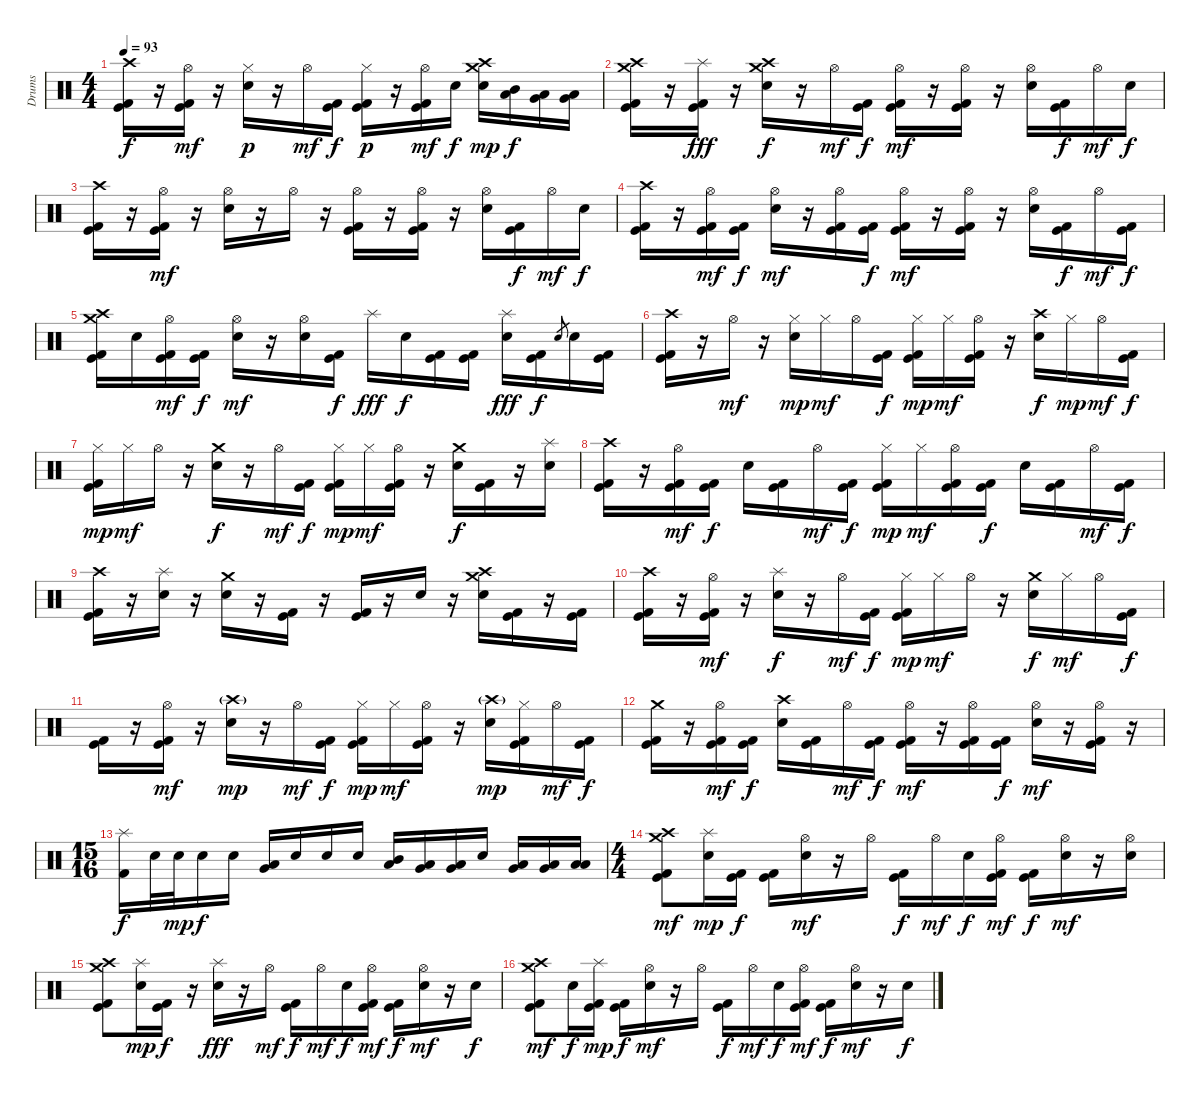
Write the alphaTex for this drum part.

\track ("Drums" "Drums") {instrument percussion}
\staff {score}
\articulation defaults
\ts (4 4)
\tempo 93
\clef neutral
\ks c
("Crash high (hit)" "Kick (hit)" "Kick (hit) 2").16{dy f} r.16 ("Hi-Hat (open)" "Kick (hit)" "Kick (hit) 2").16{dy mf} r.16 ("Hi-Hat (closed)" "Electric Snare (hit)").16{dy p} r.16 "Hi-Hat (open)".16{dy mf} ("Kick (hit)" "Kick (hit) 2").16{dy f} ("Hi-Hat (closed)" "Kick (hit)" "Kick (hit) 2").16{dy p} r.16 ("Hi-Hat (open)" "Kick (hit)" "Kick (hit) 2").16{dy mf} "Electric Snare (hit)".16{dy f} ("Crash high (hit)" "Crash medium (hit)" "Electric Snare (hit)").16{dy mp} ("Mid Tom (hit)" "Low Tom (hit)").16{dy f} ("Low Tom (hit)" "Very Low Tom (hit)").16 ("Very Low Tom (hit)" "Low Floor Tom (hit)").16 |
("Crash high (hit)" "Crash medium (hit)" "Kick (hit)" "Kick (hit) 2").16 r.16 ("Splash (hit)" "Kick (hit)" "Kick (hit) 2").16{dy fff} r.16 ("Crash high (hit)" "Crash medium (hit)" "Electric Snare (hit)").16{dy f} r.16 "Hi-Hat (open)".16{dy mf} ("Kick (hit)" "Kick (hit) 2").16{dy f} ("Hi-Hat (open)" "Kick (hit)" "Kick (hit) 2").16{dy mf} r.16 ("Hi-Hat (open)" "Kick (hit)" "Kick (hit) 2").16 r.16 ("Hi-Hat (open)" "Electric Snare (hit)").16 ("Kick (hit)" "Kick (hit) 2").16{dy f} "Hi-Hat (open)".16{dy mf} "Electric Snare (hit)".16{dy f} |
("Crash high (hit)" "Kick (hit)" "Kick (hit) 2").16 r.16 ("Hi-Hat (open)" "Kick (hit)" "Kick (hit) 2").16{dy mf} r.16 ("Hi-Hat (open)" "Electric Snare (hit)").16 r.16 "Hi-Hat (open)".16 r.16 ("Hi-Hat (open)" "Kick (hit)" "Kick (hit) 2").16 r.16 ("Hi-Hat (open)" "Kick (hit)" "Kick (hit) 2").16 r.16 ("Hi-Hat (open)" "Electric Snare (hit)").16 ("Kick (hit)" "Kick (hit) 2").16{dy f} "Hi-Hat (open)".16{dy mf} "Electric Snare (hit)".16{dy f} |
("Crash high (hit)" "Kick (hit)" "Kick (hit) 2").16 r.16 ("Hi-Hat (open)" "Kick (hit)" "Kick (hit) 2").16{dy mf} ("Kick (hit)" "Kick (hit) 2").16{dy f} ("Hi-Hat (open)" "Electric Snare (hit)").16{dy mf} r.16 ("Hi-Hat (open)" "Kick (hit)" "Kick (hit) 2").16 ("Kick (hit)" "Kick (hit) 2").16{dy f} ("Hi-Hat (open)" "Kick (hit)" "Kick (hit) 2").16{dy mf} r.16 ("Hi-Hat (open)" "Kick (hit)" "Kick (hit) 2").16 r.16 ("Hi-Hat (open)" "Electric Snare (hit)").16 ("Kick (hit)" "Kick (hit) 2").16{dy f} "Hi-Hat (open)".16{dy mf} ("Kick (hit)" "Kick (hit) 2").16{dy f} |
("Crash high (hit)" "Crash medium (hit)" "Kick (hit)" "Kick (hit) 2").16 "Electric Snare (hit)".16 ("Hi-Hat (open)" "Kick (hit)" "Kick (hit) 2").16{dy mf} ("Kick (hit)" "Kick (hit) 2").16{dy f} ("Hi-Hat (open)" "Electric Snare (hit)").16{dy mf} r.16 ("Hi-Hat (open)" "Electric Snare (hit)").16 ("Kick (hit)" "Kick (hit) 2").16{dy f} "Splash (hit)".16{dy fff} "Electric Snare (hit)".16{dy f} ("Kick (hit)" "Kick (hit) 2").16 ("Kick (hit)" "Kick (hit) 2").16 ("Splash (hit)" "Electric Snare (hit)").16{dy fff} ("Kick (hit)" "Kick (hit) 2").16{dy f} "Electric Snare (hit)".8{gr} "Electric Snare (hit)".16 ("Kick (hit)" "Kick (hit) 2").16 |
("Crash high (hit)" "Kick (hit)" "Kick (hit) 2").16 r.16 "Hi-Hat (open)".16{dy mf} r.16 ("Hi-Hat (closed)" "Electric Snare (hit)").16{dy mp} "Hi-Hat (closed)".16{dy mf} "Hi-Hat (open)".16 ("Kick (hit)" "Kick (hit) 2").16{dy f} ("Hi-Hat (closed)" "Kick (hit)" "Kick (hit) 2").16{dy mp} "Hi-Hat (closed)".16{dy mf} ("Hi-Hat (open)" "Kick (hit)" "Kick (hit) 2").16 r.16 ("Crash high (hit)" "Electric Snare (hit)").16{dy f} "Hi-Hat (closed)".16{dy mp} "Hi-Hat (open)".16{dy mf} ("Kick (hit)" "Kick (hit) 2").16{dy f} |
("Hi-Hat (closed)" "Kick (hit)" "Kick (hit) 2").16{dy mp} "Hi-Hat (closed)".16{dy mf} "Hi-Hat (open)".16 r.16 ("Crash medium (hit)" "Electric Snare (hit)").16{dy f} r.16 "Hi-Hat (open)".16{dy mf} ("Kick (hit)" "Kick (hit) 2").16{dy f} ("Hi-Hat (closed)" "Kick (hit)" "Kick (hit) 2").16{dy mp} "Hi-Hat (closed)".16{dy mf} ("Hi-Hat (open)" "Kick (hit)" "Kick (hit) 2").16 r.16 ("Crash medium (hit)" "Electric Snare (hit)").16{dy f} ("Kick (hit)" "Kick (hit) 2").16 r.16 ("Splash (hit)" "Electric Snare (hit)").16 |
("Crash high (hit)" "Kick (hit)" "Kick (hit) 2").16 r.16 ("Hi-Hat (open)" "Kick (hit)" "Kick (hit) 2").16{dy mf} ("Kick (hit)" "Kick (hit) 2").16{dy f} "Electric Snare (hit)".16 ("Kick (hit)" "Kick (hit) 2").16 "Hi-Hat (open)".16{dy mf} ("Kick (hit)" "Kick (hit) 2").16{dy f} ("Hi-Hat (closed)" "Kick (hit)" "Kick (hit) 2").16{dy mp} "Hi-Hat (closed)".16{dy mf} ("Hi-Hat (open)" "Kick (hit)" "Kick (hit) 2").16 ("Kick (hit)" "Kick (hit) 2").16{dy f} "Electric Snare (hit)".16 ("Kick (hit)" "Kick (hit) 2").16 "Hi-Hat (open)".16{dy mf} ("Kick (hit)" "Kick (hit) 2").16{dy f} |
("Crash high (hit)" "Kick (hit)" "Kick (hit) 2").16 r.16 ("Splash (hit)" "Electric Snare (hit)").16 r.16 ("Crash medium (hit)" "Electric Snare (hit)").16 r.16 ("Kick (hit)" "Kick (hit) 2").16 r.16 ("Kick (hit)" "Kick (hit) 2").16 r.16 "Electric Snare (hit)".16 r.16 ("Crash high (hit)" "Crash medium (hit)" "Electric Snare (hit)").16 ("Kick (hit)" "Kick (hit) 2").16 r.16 ("Kick (hit)" "Kick (hit) 2").16 |
("Crash high (hit)" "Kick (hit)" "Kick (hit) 2").16 r.16 ("Hi-Hat (open)" "Kick (hit)" "Kick (hit) 2").16{dy mf} r.16 ("Splash (hit)" "Electric Snare (hit)").16{dy f} r.16 "Hi-Hat (open)".16{dy mf} ("Kick (hit)" "Kick (hit) 2").16{dy f} ("Hi-Hat (closed)" "Kick (hit)" "Kick (hit) 2").16{dy mp} "Hi-Hat (closed)".16{dy mf} "Hi-Hat (open)".16 r.16 ("Crash medium (hit)" "Electric Snare (hit)").16{dy f} "Hi-Hat (closed)".16{dy mf} "Hi-Hat (open)".16 ("Kick (hit)" "Kick (hit) 2").16{dy f} |
("Kick (hit)" "Kick (hit) 2").16 r.16 ("Hi-Hat (open)" "Kick (hit)" "Kick (hit) 2").16{dy mf} r.16 ("Crash high (hit)"{g} "Electric Snare (hit)").16{dy mp} r.16 "Hi-Hat (open)".16{dy mf} ("Kick (hit)" "Kick (hit) 2").16{dy f} ("Hi-Hat (closed)" "Kick (hit)" "Kick (hit) 2").16{dy mp} "Hi-Hat (closed)".16{dy mf} ("Hi-Hat (open)" "Kick (hit)" "Kick (hit) 2").16 r.16 ("Crash high (hit)"{g} "Electric Snare (hit)").16{dy mp} ("Hi-Hat (closed)" "Kick (hit)" "Kick (hit) 2").16 "Hi-Hat (open)".16{dy mf} ("Kick (hit)" "Kick (hit) 2").16{dy f} |
("Crash medium (hit)" "Kick (hit)" "Kick (hit) 2").16 r.16 ("Hi-Hat (open)" "Kick (hit)" "Kick (hit) 2").16{dy mf} ("Kick (hit)" "Kick (hit) 2").16{dy f} ("Crash high (hit)" "Electric Snare (hit)").16 ("Kick (hit)" "Kick (hit) 2").16 "Hi-Hat (open)".16{dy mf} ("Kick (hit)" "Kick (hit) 2").16{dy f} ("Hi-Hat (open)" "Kick (hit)" "Kick (hit) 2").16{dy mf} r.16 ("Hi-Hat (open)" "Kick (hit)" "Kick (hit) 2").16 ("Kick (hit)" "Kick (hit) 2").16{dy f} ("Hi-Hat (open)" "Electric Snare (hit)").16{dy mf} r.16 ("Hi-Hat (open)" "Kick (hit)" "Kick (hit) 2").16 r.16 |
\ts (15 16)
("Splash (hit)" "Kick (hit) 2").16{dy f} "Electric Snare (hit)".32 "Electric Snare (hit)".32{dy mp} "Electric Snare (hit)".16{dy f} "Electric Snare (hit)".16 ("Low Tom (hit)" "Very Low Tom (hit)").16 "Electric Snare (hit)".16 "Electric Snare (hit)".16 "Electric Snare (hit)".16 ("Mid Tom (hit)" "Low Tom (hit)").16 ("Low Tom (hit)" "Very Low Tom (hit)").16 ("Very Low Tom (hit)" "Low Floor Tom (hit)").16 "Electric Snare (hit)".16 ("Low Tom (hit)" "Very Low Tom (hit)").16 ("Very Low Tom (hit)" "Low Floor Tom (hit)").16 ("Low Floor Tom (hit)" "Low Floor Tom (hit)").16 |
\ts (4 4)
("Crash medium (hit)" "Crash high (hit)" "Kick (hit)" "Kick (hit) 2").8{dy mf} ("Splash (hit)" "Electric Snare (hit)").16{dy mp} ("Kick (hit)" "Kick (hit) 2").16{dy f} ("Kick (hit)" "Kick (hit) 2").16 ("Hi-Hat (open)" "Electric Snare (hit)").16{dy mf} r.16 "Hi-Hat (open)".16 ("Kick (hit)" "Kick (hit) 2").16{dy f} "Hi-Hat (open)".16{dy mf} "Electric Snare (hit)".16{dy f} ("Hi-Hat (open)" "Kick (hit)" "Kick (hit) 2").16{dy mf} ("Kick (hit)" "Kick (hit) 2").16{dy f} ("Hi-Hat (open)" "Electric Snare (hit)").16{dy mf} r.16 ("Hi-Hat (open)" "Electric Snare (hit)").16 |
("Crash medium (hit)" "Crash high (hit)" "Kick (hit)" "Kick (hit) 2").8 ("Splash (hit)" "Electric Snare (hit)").16{dy mp} ("Kick (hit)" "Kick (hit) 2").16{dy f} r.16 ("Splash (hit)" "Electric Snare (hit)").16{dy fff} r.16 "Hi-Hat (open)".16{dy mf} ("Kick (hit)" "Kick (hit) 2").16{dy f} "Hi-Hat (open)".16{dy mf} "Electric Snare (hit)".16{dy f} ("Hi-Hat (open)" "Kick (hit)" "Kick (hit) 2").16{dy mf} ("Kick (hit)" "Kick (hit) 2").16{dy f} ("Hi-Hat (open)" "Electric Snare (hit)").16{dy mf} r.16 "Electric Snare (hit)".16{dy f} |
("Crash medium (hit)" "Crash high (hit)" "Kick (hit)" "Kick (hit) 2").8{dy mf} "Electric Snare (hit)".16{dy f} ("Splash (hit)" "Kick (hit)" "Kick (hit) 2").16{dy mp} ("Kick (hit)" "Kick (hit) 2").16{dy f} ("Hi-Hat (open)" "Electric Snare (hit)").16{dy mf} r.16 "Hi-Hat (open)".16 ("Kick (hit)" "Kick (hit) 2").16{dy f} "Hi-Hat (open)".16{dy mf} "Electric Snare (hit)".16{dy f} ("Hi-Hat (open)" "Kick (hit)" "Kick (hit) 2").16{dy mf} ("Kick (hit)" "Kick (hit) 2").16{dy f} ("Hi-Hat (open)" "Electric Snare (hit)").16{dy mf} r.16 "Electric Snare (hit)".16{dy f}
